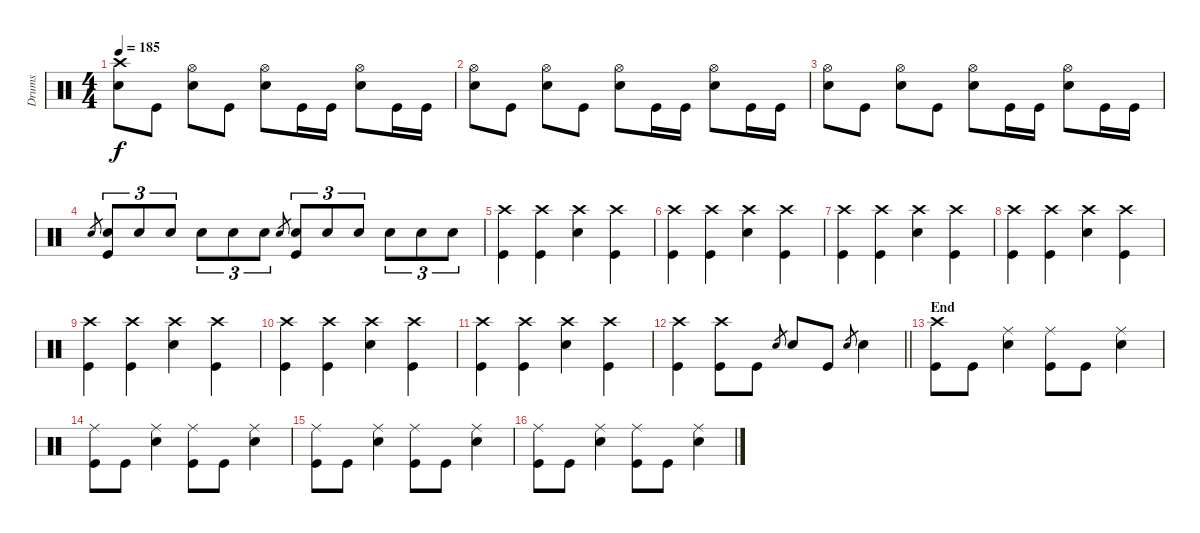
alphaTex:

\track ("Drums" "Drums") {instrument percussion}
\staff {score}
\articulation defaults
\ts (4 4)
\tempo 185
\clef neutral
\ks c
("Crash high (hit)" "Snare (hit) 2").8{dy f} "Kick (hit)".8 ("Hi-Hat (open)" "Snare (hit) 2").8 "Kick (hit)".8 ("Hi-Hat (open)" "Snare (hit) 2").8 "Kick (hit)".16 "Kick (hit)".16 ("Hi-Hat (open)" "Snare (hit) 2").8 "Kick (hit)".16 "Kick (hit)".16 |
("Hi-Hat (open)" "Snare (hit) 2").8 "Kick (hit)".8 ("Hi-Hat (open)" "Snare (hit) 2").8 "Kick (hit)".8 ("Hi-Hat (open)" "Snare (hit) 2").8 "Kick (hit)".16 "Kick (hit)".16 ("Hi-Hat (open)" "Snare (hit) 2").8 "Kick (hit)".16 "Kick (hit)".16 |
("Hi-Hat (open)" "Snare (hit) 2").8 "Kick (hit)".8 ("Hi-Hat (open)" "Snare (hit) 2").8 "Kick (hit)".8 ("Hi-Hat (open)" "Snare (hit) 2").8 "Kick (hit)".16 "Kick (hit)".16 ("Hi-Hat (open)" "Snare (hit) 2").8 "Kick (hit)".16 "Kick (hit)".16 |
"Snare (hit) 2".8{gr} ("Snare (hit) 2" "Kick (hit)").8{tu (3 2)} "Snare (hit) 2".8{tu (3 2)} "Snare (hit) 2".8{tu (3 2)} "Snare (hit) 2".8{tu (3 2)} "Snare (hit) 2".8{tu (3 2)} "Snare (hit) 2".8{tu (3 2)} "Snare (hit) 2".8{gr} ("Snare (hit) 2" "Kick (hit)").8{tu (3 2)} "Snare (hit) 2".8{tu (3 2)} "Snare (hit) 2".8{tu (3 2)} "Snare (hit) 2".8{tu (3 2)} "Snare (hit) 2".8{tu (3 2)} "Snare (hit) 2".8{tu (3 2)} |
("Crash high (hit)" "Kick (hit)").4 ("Crash high (hit)" "Kick (hit)").4 ("Crash high (hit)" "Snare (hit) 2").4 ("Crash high (hit)" "Kick (hit)").4 |
("Crash high (hit)" "Kick (hit)").4 ("Crash high (hit)" "Kick (hit)").4 ("Crash high (hit)" "Snare (hit) 2").4 ("Crash high (hit)" "Kick (hit)").4 |
("Crash high (hit)" "Kick (hit)").4 ("Crash high (hit)" "Kick (hit)").4 ("Crash high (hit)" "Snare (hit) 2").4 ("Crash high (hit)" "Kick (hit)").4 |
("Crash high (hit)" "Kick (hit)").4 ("Crash high (hit)" "Kick (hit)").4 ("Crash high (hit)" "Snare (hit) 2").4 ("Crash high (hit)" "Kick (hit)").4 |
("Crash high (hit)" "Kick (hit)").4 ("Crash high (hit)" "Kick (hit)").4 ("Crash high (hit)" "Snare (hit) 2").4 ("Crash high (hit)" "Kick (hit)").4 |
("Crash high (hit)" "Kick (hit)").4 ("Crash high (hit)" "Kick (hit)").4 ("Crash high (hit)" "Snare (hit) 2").4 ("Crash high (hit)" "Kick (hit)").4 |
("Crash high (hit)" "Kick (hit)").4 ("Crash high (hit)" "Kick (hit)").4 ("Crash high (hit)" "Snare (hit) 2").4 ("Crash high (hit)" "Kick (hit)").4 |
\barLineRight lightlight
("Crash high (hit)" "Kick (hit)").4 ("Crash high (hit)" "Kick (hit)").8 "Kick (hit)".8 "Snare (hit) 2".8{gr} "Snare (hit) 2".8 "Kick (hit)".8 "Snare (hit) 2".8{gr} "Snare (hit) 2".4 |
\section ("" "End")
("Crash high (hit)" "Kick (hit)").8 "Kick (hit)".8 ("Ride (middle)" "Snare (hit) 2").4 ("Ride (middle)" "Kick (hit)").8 "Kick (hit)".8 ("Ride (middle)" "Snare (hit) 2").4 |
("Ride (middle)" "Kick (hit)").8 "Kick (hit)".8 ("Ride (middle)" "Snare (hit) 2").4 ("Ride (middle)" "Kick (hit)").8 "Kick (hit)".8 ("Ride (middle)" "Snare (hit) 2").4 |
("Ride (middle)" "Kick (hit)").8 "Kick (hit)".8 ("Ride (middle)" "Snare (hit) 2").4 ("Ride (middle)" "Kick (hit)").8 "Kick (hit)".8 ("Ride (middle)" "Snare (hit) 2").4 |
("Ride (middle)" "Kick (hit)").8 "Kick (hit)".8 ("Ride (middle)" "Snare (hit) 2").4 ("Ride (middle)" "Kick (hit)").8 "Kick (hit)".8 ("Ride (middle)" "Snare (hit) 2").4
